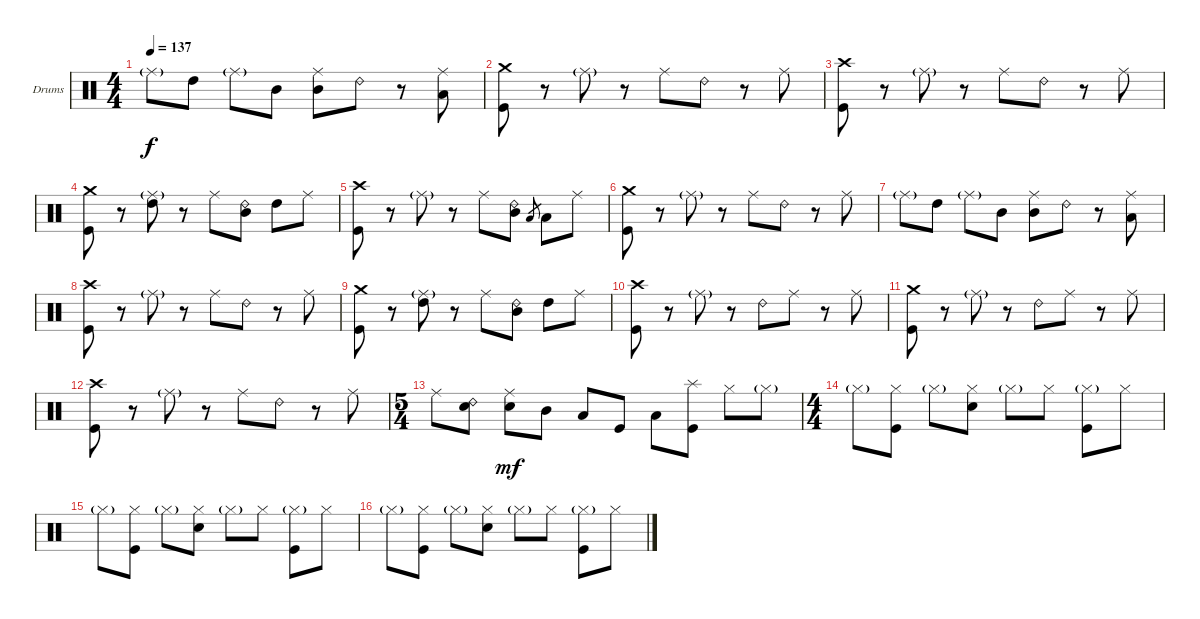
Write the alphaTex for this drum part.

\defaultSystemsLayout 4
\bracketExtendMode groupsimilarinstruments
\firstSystemTrackNameOrientation horizontal
\otherSystemsTrackNameOrientation horizontal
\track ("Valverde Drums" "Drums") {instrument percussion}
\staff {score}
\articulation defaults
\ts (4 4)
\tempo 137
\clef neutral
\ks c "Ride (middle)"{g}.8{dy f} "High Tom (hit)".8 "Ride (middle)"{g}.8 "Mid Tom (hit)".8
("Ride (middle)" "Mid Tom (hit)").8 "Ride (bell) 2".8 r.8 ("Ride (middle)" "Low Tom (hit)").8 |
("Crash medium (hit)" "Kick (hit)").8 r.8 "Ride (middle)"{g}.8 r.8 "Ride (middle)".8 "Ride (bell) 2".8 r.8 "Ride (middle)".8 |
("Kick (hit)" "Crash high (hit)").8 r.8 "Ride (middle)"{g}.8 r.8 "Ride (middle)".8 "Ride (bell) 2".8 r.8 "Ride (middle)".8 |
("Crash medium (hit)" "Kick (hit)").8 r.8 ("Ride (middle)"{g} "High Tom (hit)").8 r.8 "Ride (middle)".8 ("Ride (bell) 2" "Mid Tom (hit)").8 "High Tom (hit)".8 "Ride (middle)".8 |
("Kick (hit)" "Crash high (hit)").8 r.8 "Ride (middle)"{g}.8 r.8 "Ride (middle)".8 ("Ride (bell) 2" "Mid Tom (hit)").8 "Low Tom (hit)".8{gr} "Low Tom (hit)".8 "Ride (middle)".8 |
("Crash medium (hit)" "Kick (hit)").8 r.8 "Ride (middle)"{g}.8 r.8 "Ride (middle)".8 "Ride (bell) 2".8 r.8 "Ride (middle)".8 |
"Ride (middle)"{g}.8 "High Tom (hit)".8 "Ride (middle)"{g}.8 "Mid Tom (hit)".8 ("Ride (middle)" "Mid Tom (hit)").8 "Ride (bell) 2".8 r.8 ("Ride (middle)" "Low Tom (hit)").8 |
("Kick (hit)" "Crash high (hit)").8 r.8 "Ride (middle)"{g}.8 r.8 "Ride (middle)".8 "Ride (bell) 2".8 r.8 "Ride (middle)".8 |
("Crash medium (hit)" "Kick (hit)").8 r.8 ("Ride (middle)"{g} "High Tom (hit)").8 r.8 "Ride (middle)".8 ("Ride (bell) 2" "Mid Tom (hit)").8 "High Tom (hit)".8 "Ride (middle)".8 |
("Kick (hit)" "Crash high (hit)").8 r.8 "Ride (middle)"{g}.8 r.8 "Ride (bell) 2".8 "Ride (middle)".8 r.8 "Ride (middle)".8 |
("Crash medium (hit)" "Kick (hit)").8 r.8 "Ride (middle)"{g}.8 r.8 "Ride (bell) 2".8 "Ride (middle)".8 r.8 "Ride (middle)".8 |
("Kick (hit)" "Crash high (hit)").8 r.8 "Ride (middle)"{g}.8 r.8 "Ride (middle)".8 "Ride (bell) 2".8 r.8 "Ride (middle)".8 |
\ts (5 4)
"Ride (middle)".8 ("Ride (bell) 2" "Snare (hit) 2").8 ("Ride (middle)" "Snare (hit) 2").8{dy mf} "Mid Tom (hit)".8 "Low Tom (hit)".8 "Kick (hit)".8 "Low Tom (hit)".8 ("Splash (hit)" "Kick (hit)").8 "Hi-Hat (closed)".8 "Hi-Hat (closed)"{g}.8 |
\ts (4 4)
"Hi-Hat (closed)"{g}.8 ("Hi-Hat (closed)" "Kick (hit)").8 "Hi-Hat (closed)"{g}.8 ("Hi-Hat (closed)" "Snare (hit) 2").8 "Hi-Hat (closed)"{g}.8 "Hi-Hat (closed)".8 ("Hi-Hat (closed)"{g} "Kick (hit)").8 "Hi-Hat (closed)".8 |
"Hi-Hat (closed)"{g}.8 ("Hi-Hat (closed)" "Kick (hit)").8 "Hi-Hat (closed)"{g}.8 ("Hi-Hat (closed)" "Snare (hit) 2").8 "Hi-Hat (closed)"{g}.8 "Hi-Hat (closed)".8 ("Hi-Hat (closed)"{g} "Kick (hit)").8 "Hi-Hat (closed)".8 |
"Hi-Hat (closed)"{g}.8 ("Hi-Hat (closed)" "Kick (hit)").8 "Hi-Hat (closed)"{g}.8 ("Hi-Hat (closed)" "Snare (hit) 2").8 "Hi-Hat (closed)"{g}.8 "Hi-Hat (closed)".8 ("Hi-Hat (closed)"{g} "Kick (hit)").8 "Hi-Hat (closed)".8
